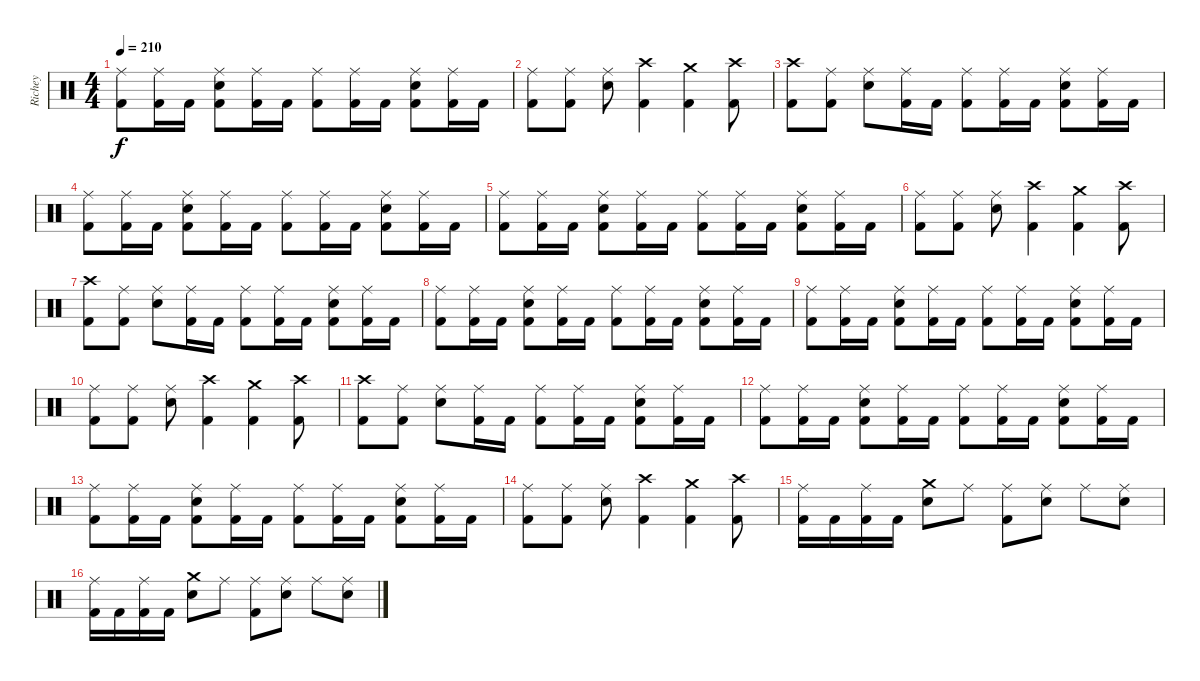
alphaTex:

\track ("Richey" "Richey") {instrument percussion}
\staff {score}
\articulation defaults
\ts (4 4)
\tempo 210
\clef neutral
\ks c
("Ride (middle)" "Kick (hit) 2").8{dy f} ("Ride (middle)" "Kick (hit) 2").16 "Kick (hit) 2".16 ("Ride (middle)" "Snare (hit) 2" "Kick (hit) 2").8 ("Ride (middle)" "Kick (hit) 2").16 "Kick (hit) 2".16 ("Ride (middle)" "Kick (hit) 2").8 ("Ride (middle)" "Kick (hit) 2").16 "Kick (hit) 2".16 ("Ride (middle)" "Snare (hit) 2" "Kick (hit) 2").8 ("Ride (middle)" "Kick (hit) 2").16 "Kick (hit) 2".16 |
("Ride (middle)" "Kick (hit) 2").8 ("Ride (middle)" "Kick (hit) 2").8 ("Ride (middle)" "Snare (hit) 2").8 ("Crash high (hit)" "Kick (hit) 2").4 ("Crash medium (hit)" "Kick (hit) 2").4 ("Crash high (hit)" "Kick (hit) 2").8 |
("Crash high (hit)" "Kick (hit) 2").8 ("Ride (middle)" "Kick (hit) 2").8 ("Ride (middle)" "Snare (hit) 2").8 ("Ride (middle)" "Kick (hit) 2").16 "Kick (hit) 2".16 ("Ride (middle)" "Kick (hit) 2").8 ("Ride (middle)" "Kick (hit) 2").16 "Kick (hit) 2".16 ("Ride (middle)" "Snare (hit) 2" "Kick (hit) 2").8 ("Ride (middle)" "Kick (hit) 2").16 "Kick (hit) 2".16 |
("Ride (middle)" "Kick (hit) 2").8 ("Ride (middle)" "Kick (hit) 2").16 "Kick (hit) 2".16 ("Ride (middle)" "Snare (hit) 2" "Kick (hit) 2").8 ("Ride (middle)" "Kick (hit) 2").16 "Kick (hit) 2".16 ("Ride (middle)" "Kick (hit) 2").8 ("Ride (middle)" "Kick (hit) 2").16 "Kick (hit) 2".16 ("Ride (middle)" "Snare (hit) 2" "Kick (hit) 2").8 ("Ride (middle)" "Kick (hit) 2").16 "Kick (hit) 2".16 |
("Ride (middle)" "Kick (hit) 2").8 ("Ride (middle)" "Kick (hit) 2").16 "Kick (hit) 2".16 ("Ride (middle)" "Snare (hit) 2" "Kick (hit) 2").8 ("Ride (middle)" "Kick (hit) 2").16 "Kick (hit) 2".16 ("Ride (middle)" "Kick (hit) 2").8 ("Ride (middle)" "Kick (hit) 2").16 "Kick (hit) 2".16 ("Ride (middle)" "Snare (hit) 2" "Kick (hit) 2").8 ("Ride (middle)" "Kick (hit) 2").16 "Kick (hit) 2".16 |
("Ride (middle)" "Kick (hit) 2").8 ("Ride (middle)" "Kick (hit) 2").8 ("Ride (middle)" "Snare (hit) 2").8 ("Crash high (hit)" "Kick (hit) 2").4 ("Crash medium (hit)" "Kick (hit) 2").4 ("Crash high (hit)" "Kick (hit) 2").8 |
("Crash high (hit)" "Kick (hit) 2").8 ("Ride (middle)" "Kick (hit) 2").8 ("Ride (middle)" "Snare (hit) 2").8 ("Ride (middle)" "Kick (hit) 2").16 "Kick (hit) 2".16 ("Ride (middle)" "Kick (hit) 2").8 ("Ride (middle)" "Kick (hit) 2").16 "Kick (hit) 2".16 ("Ride (middle)" "Snare (hit) 2" "Kick (hit) 2").8 ("Ride (middle)" "Kick (hit) 2").16 "Kick (hit) 2".16 |
("Ride (middle)" "Kick (hit) 2").8 ("Ride (middle)" "Kick (hit) 2").16 "Kick (hit) 2".16 ("Ride (middle)" "Snare (hit) 2" "Kick (hit) 2").8 ("Ride (middle)" "Kick (hit) 2").16 "Kick (hit) 2".16 ("Ride (middle)" "Kick (hit) 2").8 ("Ride (middle)" "Kick (hit) 2").16 "Kick (hit) 2".16 ("Ride (middle)" "Snare (hit) 2" "Kick (hit) 2").8 ("Ride (middle)" "Kick (hit) 2").16 "Kick (hit) 2".16 |
("Ride (middle)" "Kick (hit) 2").8 ("Ride (middle)" "Kick (hit) 2").16 "Kick (hit) 2".16 ("Ride (middle)" "Snare (hit) 2" "Kick (hit) 2").8 ("Ride (middle)" "Kick (hit) 2").16 "Kick (hit) 2".16 ("Ride (middle)" "Kick (hit) 2").8 ("Ride (middle)" "Kick (hit) 2").16 "Kick (hit) 2".16 ("Ride (middle)" "Snare (hit) 2" "Kick (hit) 2").8 ("Ride (middle)" "Kick (hit) 2").16 "Kick (hit) 2".16 |
("Ride (middle)" "Kick (hit) 2").8 ("Ride (middle)" "Kick (hit) 2").8 ("Ride (middle)" "Snare (hit) 2").8 ("Crash high (hit)" "Kick (hit) 2").4 ("Crash medium (hit)" "Kick (hit) 2").4 ("Crash high (hit)" "Kick (hit) 2").8 |
("Crash high (hit)" "Kick (hit) 2").8 ("Ride (middle)" "Kick (hit) 2").8 ("Ride (middle)" "Snare (hit) 2").8 ("Ride (middle)" "Kick (hit) 2").16 "Kick (hit) 2".16 ("Ride (middle)" "Kick (hit) 2").8 ("Ride (middle)" "Kick (hit) 2").16 "Kick (hit) 2".16 ("Ride (middle)" "Snare (hit) 2" "Kick (hit) 2").8 ("Ride (middle)" "Kick (hit) 2").16 "Kick (hit) 2".16 |
("Ride (middle)" "Kick (hit) 2").8 ("Ride (middle)" "Kick (hit) 2").16 "Kick (hit) 2".16 ("Ride (middle)" "Snare (hit) 2" "Kick (hit) 2").8 ("Ride (middle)" "Kick (hit) 2").16 "Kick (hit) 2".16 ("Ride (middle)" "Kick (hit) 2").8 ("Ride (middle)" "Kick (hit) 2").16 "Kick (hit) 2".16 ("Ride (middle)" "Snare (hit) 2" "Kick (hit) 2").8 ("Ride (middle)" "Kick (hit) 2").16 "Kick (hit) 2".16 |
("Ride (middle)" "Kick (hit) 2").8 ("Ride (middle)" "Kick (hit) 2").16 "Kick (hit) 2".16 ("Ride (middle)" "Snare (hit) 2" "Kick (hit) 2").8 ("Ride (middle)" "Kick (hit) 2").16 "Kick (hit) 2".16 ("Ride (middle)" "Kick (hit) 2").8 ("Ride (middle)" "Kick (hit) 2").16 "Kick (hit) 2".16 ("Ride (middle)" "Snare (hit) 2" "Kick (hit) 2").8 ("Ride (middle)" "Kick (hit) 2").16 "Kick (hit) 2".16 |
("Ride (middle)" "Kick (hit) 2").8 ("Ride (middle)" "Kick (hit) 2").8 ("Ride (middle)" "Snare (hit) 2").8 ("Crash high (hit)" "Kick (hit) 2").4 ("Crash medium (hit)" "Kick (hit) 2").4 ("Crash high (hit)" "Kick (hit) 2").8 |
("Ride (middle)" "Kick (hit) 2").16 "Kick (hit) 2".16 ("Ride (middle)" "Kick (hit) 2").16 "Kick (hit) 2".16 ("Crash medium (hit)" "Snare (hit) 2").8 "Ride (middle)".8 ("Ride (middle)" "Kick (hit) 2").8 ("Ride (middle)" "Snare (hit) 2").8 "Ride (middle)".8 ("Ride (middle)" "Snare (hit) 2").8 |
("Ride (middle)" "Kick (hit) 2").16 "Kick (hit) 2".16 ("Ride (middle)" "Kick (hit) 2").16 "Kick (hit) 2".16 ("Crash medium (hit)" "Snare (hit) 2").8 "Ride (middle)".8 ("Ride (middle)" "Kick (hit) 2").8 ("Ride (middle)" "Snare (hit) 2").8 "Ride (middle)".8 ("Ride (middle)" "Snare (hit) 2").8
